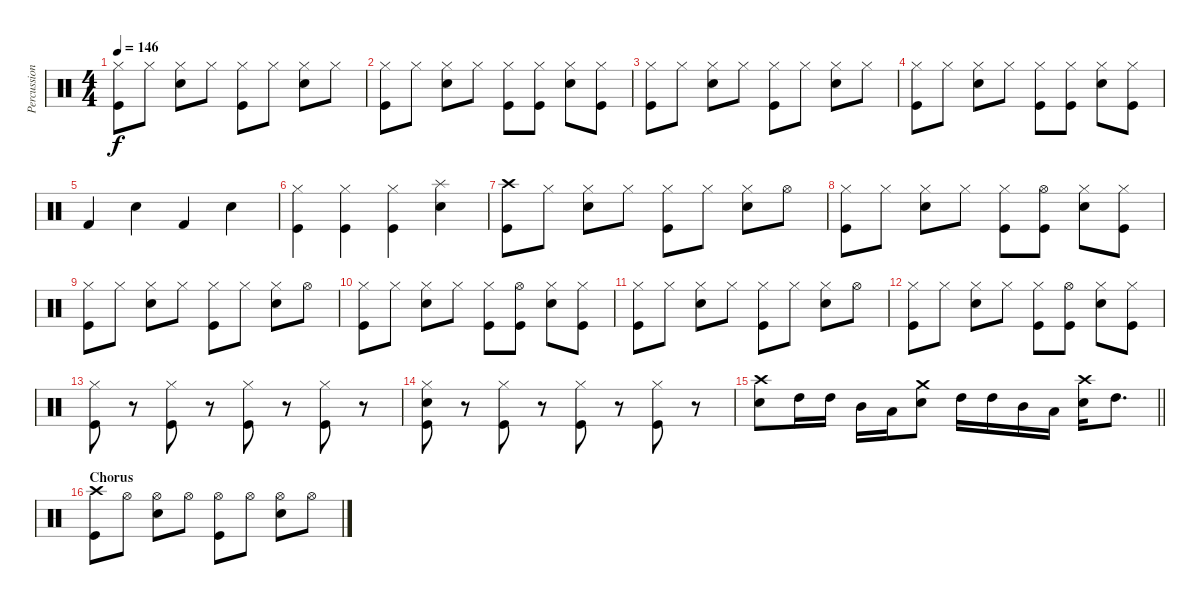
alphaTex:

\track ("Percussion" "Percussion") {instrument percussion}
\staff {score}
\articulation defaults
\ts (4 4)
\tempo 146
\clef neutral
\ks c
("Hi-Hat (closed)" "Kick (hit)").8{dy f} "Hi-Hat (closed)".8 ("Hi-Hat (closed)" "Snare (hit) 2").8 "Hi-Hat (closed)".8 ("Hi-Hat (closed)" "Kick (hit)").8 "Hi-Hat (closed)".8 ("Hi-Hat (closed)" "Snare (hit) 2").8 "Hi-Hat (closed)".8 |
("Hi-Hat (closed)" "Kick (hit)").8 "Hi-Hat (closed)".8 ("Hi-Hat (closed)" "Snare (hit) 2").8 "Hi-Hat (closed)".8 ("Hi-Hat (closed)" "Kick (hit)").8 ("Hi-Hat (closed)" "Kick (hit)").8 ("Hi-Hat (closed)" "Snare (hit) 2").8 ("Hi-Hat (closed)" "Kick (hit)").8 |
("Hi-Hat (closed)" "Kick (hit)").8 "Hi-Hat (closed)".8 ("Hi-Hat (closed)" "Snare (hit) 2").8 "Hi-Hat (closed)".8 ("Hi-Hat (closed)" "Kick (hit)").8 "Hi-Hat (closed)".8 ("Hi-Hat (closed)" "Snare (hit) 2").8 "Hi-Hat (closed)".8 |
("Hi-Hat (closed)" "Kick (hit)").8 "Hi-Hat (closed)".8 ("Hi-Hat (closed)" "Snare (hit) 2").8 "Hi-Hat (closed)".8 ("Hi-Hat (closed)" "Kick (hit)").8 ("Hi-Hat (closed)" "Kick (hit)").8 ("Hi-Hat (closed)" "Snare (hit) 2").8 ("Hi-Hat (closed)" "Kick (hit)").8 |
"Kick (hit) 2".4 "Electric Snare (hit)".4 "Kick (hit) 2".4 "Electric Snare (hit)".4 |
("Hi-Hat (closed)" "Kick (hit)").4 ("Hi-Hat (closed)" "Kick (hit)").4 ("Hi-Hat (closed)" "Kick (hit)").4 ("Splash (hit)" "Snare (hit) 2").4 |
("Crash high (hit)" "Kick (hit)").8 "Hi-Hat (closed)".8 ("Hi-Hat (closed)" "Snare (hit) 2").8 "Hi-Hat (closed)".8 ("Hi-Hat (closed)" "Kick (hit)").8 "Hi-Hat (closed)".8 ("Hi-Hat (closed)" "Snare (hit) 2").8 "Hi-Hat (open)".8 |
("Hi-Hat (closed)" "Kick (hit)").8 "Hi-Hat (closed)".8 ("Hi-Hat (closed)" "Snare (hit) 2").8 "Hi-Hat (closed)".8 ("Hi-Hat (closed)" "Kick (hit)").8 ("Hi-Hat (open)" "Kick (hit)").8 ("Hi-Hat (closed)" "Snare (hit) 2").8 ("Hi-Hat (closed)" "Kick (hit)").8 |
("Hi-Hat (closed)" "Kick (hit)").8 "Hi-Hat (closed)".8 ("Hi-Hat (closed)" "Snare (hit) 2").8 "Hi-Hat (closed)".8 ("Hi-Hat (closed)" "Kick (hit)").8 "Hi-Hat (closed)".8 ("Hi-Hat (closed)" "Snare (hit) 2").8 "Hi-Hat (open)".8 |
("Hi-Hat (closed)" "Kick (hit)").8 "Hi-Hat (closed)".8 ("Hi-Hat (closed)" "Snare (hit) 2").8 "Hi-Hat (closed)".8 ("Hi-Hat (closed)" "Kick (hit)").8 ("Hi-Hat (open)" "Kick (hit)").8 ("Hi-Hat (closed)" "Snare (hit) 2").8 ("Hi-Hat (closed)" "Kick (hit)").8 |
("Hi-Hat (closed)" "Kick (hit)").8 "Hi-Hat (closed)".8 ("Hi-Hat (closed)" "Snare (hit) 2").8 "Hi-Hat (closed)".8 ("Hi-Hat (closed)" "Kick (hit)").8 "Hi-Hat (closed)".8 ("Hi-Hat (closed)" "Snare (hit) 2").8 "Hi-Hat (open)".8 |
("Hi-Hat (closed)" "Kick (hit)").8 "Hi-Hat (closed)".8 ("Hi-Hat (closed)" "Snare (hit) 2").8 "Hi-Hat (closed)".8 ("Hi-Hat (closed)" "Kick (hit)").8 ("Hi-Hat (open)" "Kick (hit)").8 ("Hi-Hat (closed)" "Snare (hit) 2").8 ("Hi-Hat (closed)" "Kick (hit)").8 |
("Hi-Hat (closed)" "Kick (hit)").8 r.8 ("Hi-Hat (closed)" "Kick (hit)").8 r.8 ("Hi-Hat (closed)" "Kick (hit)").8 r.8 ("Hi-Hat (closed)" "Kick (hit)").8 r.8 |
("Hi-Hat (closed)" "Snare (hit) 2" "Kick (hit)").8 r.8 ("Hi-Hat (closed)" "Kick (hit)").8 r.8 ("Hi-Hat (closed)" "Kick (hit)").8 r.8 ("Hi-Hat (closed)" "Kick (hit)").8 r.8 |
\barLineRight lightlight
("Crash high (hit)" "Snare (hit) 2").8 "High Tom (hit)".16 "High Tom (hit)".16 "Mid Tom (hit)".16 "Low Tom (hit)".16 ("Crash medium (hit)" "Snare (hit) 2").8 "High Tom (hit)".16 "High Tom (hit)".16 "Mid Tom (hit)".16 "Low Tom (hit)".16 ("Crash high (hit)" "Snare (hit) 2").16 "High Tom (hit)".8{d} |
\section ("" "Chorus")
("Crash high (hit)" "Kick (hit)").8 "Hi-Hat (open)".8 ("Hi-Hat (open)" "Snare (hit) 2").8 "Hi-Hat (open)".8 ("Hi-Hat (open)" "Kick (hit)").8 "Hi-Hat (open)".8 ("Hi-Hat (open)" "Snare (hit) 2").8 "Hi-Hat (open)".8
